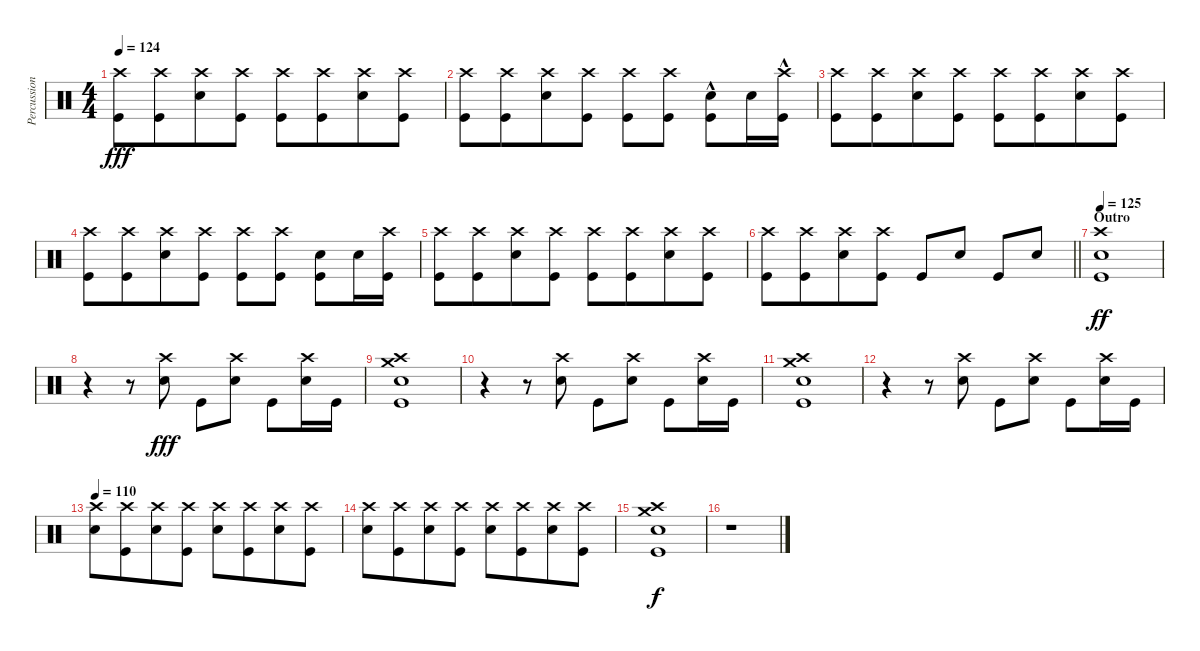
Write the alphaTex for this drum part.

\track ("Percussion" "Percussion") {instrument percussion}
\staff {score}
\articulation defaults
\ts (4 4)
\tempo 124
\clef neutral
\ks c
("Crash high (hit)" "Kick (hit)").8{dy fff} ("Crash high (hit)" "Kick (hit)").8{beam merge} ("Crash high (hit)" "Snare (hit) 2").8 ("Crash high (hit)" "Kick (hit)").8 ("Crash high (hit)" "Kick (hit)").8 ("Crash high (hit)" "Kick (hit)").8{beam merge} ("Crash high (hit)" "Snare (hit) 2").8 ("Crash high (hit)" "Kick (hit)").8 |
("Crash high (hit)" "Kick (hit)").8 ("Crash high (hit)" "Kick (hit)").8{beam merge} ("Crash high (hit)" "Snare (hit) 2").8 ("Crash high (hit)" "Kick (hit)").8 ("Crash high (hit)" "Kick (hit)").8 ("Crash high (hit)" "Kick (hit)").8 ("Snare (hit) 2" "Kick (hit)"{hac}).8 "Snare (hit) 2".16 ("Crash high (hit)" "Kick (hit)"{hac}).16 |
("Crash high (hit)" "Kick (hit)").8 ("Crash high (hit)" "Kick (hit)").8{beam merge} ("Crash high (hit)" "Snare (hit) 2").8 ("Crash high (hit)" "Kick (hit)").8 ("Crash high (hit)" "Kick (hit)").8 ("Crash high (hit)" "Kick (hit)").8{beam merge} ("Crash high (hit)" "Snare (hit) 2").8 ("Crash high (hit)" "Kick (hit)").8 |
("Crash high (hit)" "Kick (hit)").8 ("Crash high (hit)" "Kick (hit)").8{beam merge} ("Crash high (hit)" "Snare (hit) 2").8 ("Crash high (hit)" "Kick (hit)").8 ("Crash high (hit)" "Kick (hit)").8 ("Crash high (hit)" "Kick (hit)").8 ("Snare (hit) 2" "Kick (hit)").8 "Snare (hit) 2".16 ("Crash high (hit)" "Kick (hit)").16 |
("Crash high (hit)" "Kick (hit)").8 ("Crash high (hit)" "Kick (hit)").8{beam merge} ("Crash high (hit)" "Snare (hit) 2").8 ("Crash high (hit)" "Kick (hit)").8 ("Crash high (hit)" "Kick (hit)").8 ("Crash high (hit)" "Kick (hit)").8{beam merge} ("Crash high (hit)" "Snare (hit) 2").8 ("Crash high (hit)" "Kick (hit)").8 |
\barLineRight lightlight
("Crash high (hit)" "Kick (hit)").8 ("Crash high (hit)" "Kick (hit)").8{beam merge} ("Crash high (hit)" "Snare (hit) 2").8 ("Crash high (hit)" "Kick (hit)").8 "Kick (hit)".8 "Snare (hit) 2".8 "Kick (hit)".8 "Snare (hit) 2".8 |
\section ("" "Outro")
\tempo 120
\tempo 125
("Crash high (hit)" "Snare (hit) 2" "Kick (hit)").1{dy ff} |
r.4 r.8 ("Crash high (hit)" "Snare (hit) 2").8{dy fff} "Kick (hit)".8 ("Crash high (hit)" "Snare (hit) 2").8 "Kick (hit)".8 ("Crash high (hit)" "Snare (hit) 2").16 "Kick (hit)".16 |
("Crash high (hit)" "Crash medium (hit)" "Snare (hit) 2" "Kick (hit)").1 |
r.4 r.8 ("Crash high (hit)" "Snare (hit) 2").8 "Kick (hit)".8 ("Crash high (hit)" "Snare (hit) 2").8 "Kick (hit)".8 ("Crash high (hit)" "Snare (hit) 2").16 "Kick (hit)".16 |
("Crash high (hit)" "Crash medium (hit)" "Snare (hit) 2" "Kick (hit)").1 |
r.4 r.8 ("Crash high (hit)" "Snare (hit) 2").8 "Kick (hit)".8 ("Crash high (hit)" "Snare (hit) 2").8 "Kick (hit)".8 ("Crash high (hit)" "Snare (hit) 2").16 "Kick (hit)".16 |
\tempo 110
("Crash high (hit)" "Snare (hit) 2").8 ("Crash high (hit)" "Kick (hit)").8{beam merge} ("Crash high (hit)" "Snare (hit) 2").8 ("Crash high (hit)" "Kick (hit)").8 ("Crash high (hit)" "Snare (hit) 2").8 ("Crash high (hit)" "Kick (hit)").8{beam merge} ("Crash high (hit)" "Snare (hit) 2").8 ("Crash high (hit)" "Kick (hit)").8 |
("Crash high (hit)" "Snare (hit) 2").8 ("Crash high (hit)" "Kick (hit)").8{beam merge} ("Crash high (hit)" "Snare (hit) 2").8 ("Crash high (hit)" "Kick (hit)").8 ("Crash high (hit)" "Snare (hit) 2").8 ("Crash high (hit)" "Kick (hit)").8{beam merge} ("Crash high (hit)" "Snare (hit) 2").8 ("Crash high (hit)" "Kick (hit)").8 |
("Crash medium (hit)" "Crash high (hit)" "Snare (hit) 2" "Kick (hit)").1{dy f} |
r.1
